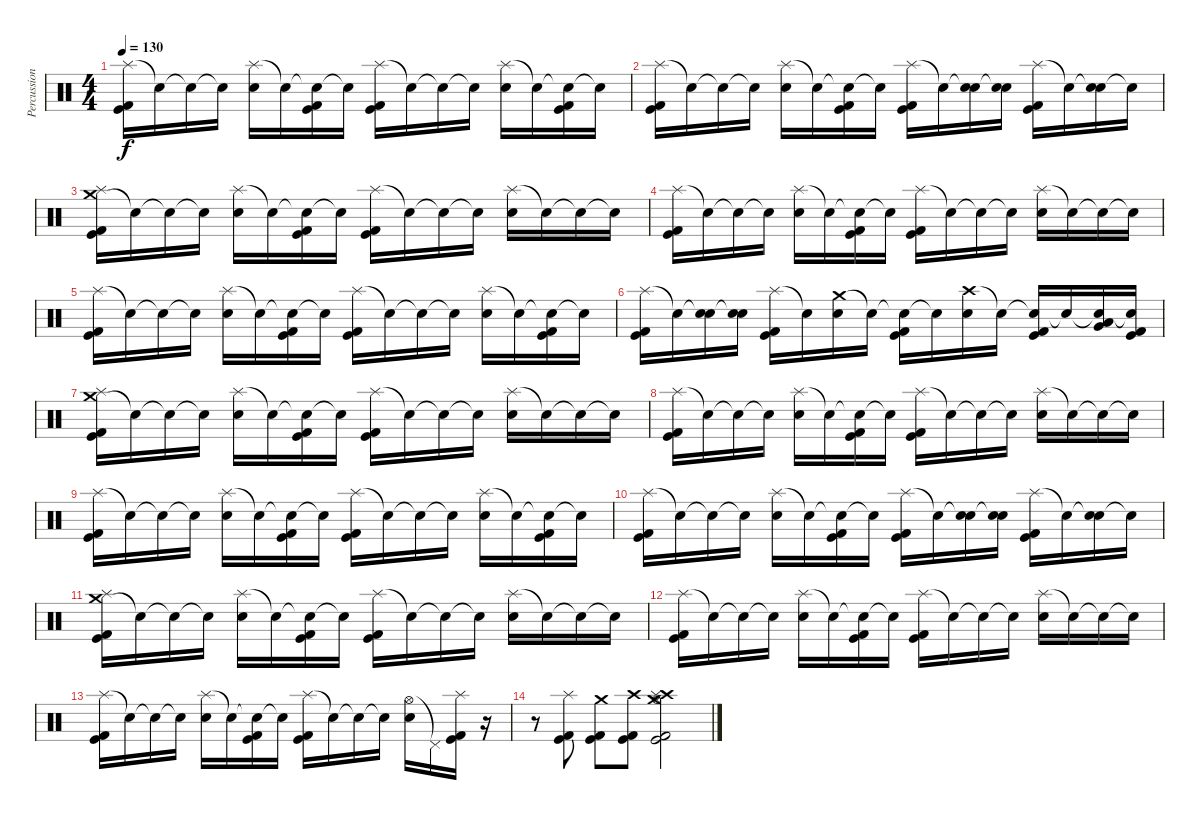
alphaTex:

\track ("Percussion" "Percussion") {instrument percussion}
\staff {score}
\articulation defaults
\ts (4 4)
\tempo 130
\clef neutral
\ks c
("Splash (hit)" "Kick (hit)" "Kick (hit) 2").16{dy f} "Snare (hit)"{t}.16 "Snare (hit)"{t}.16 "Snare (hit)"{t}.16 ("Splash (hit)" "Electric Snare (hit)").16 "Snare (hit)"{t}.16 ("Snare (hit)"{t} "Kick (hit)" "Kick (hit) 2").16 "Snare (hit)"{t}.16 ("Splash (hit)" "Kick (hit)" "Kick (hit) 2").16 "Snare (hit)"{t}.16 "Snare (hit)"{t}.16 "Snare (hit)"{t}.16 ("Splash (hit)" "Electric Snare (hit)").16 "Snare (hit)"{t}.16 ("Snare (hit)"{t} "Kick (hit)" "Kick (hit) 2").16 "Snare (hit)"{t}.16 |
("Splash (hit)" "Kick (hit)" "Kick (hit) 2").16 "Snare (hit)"{t}.16 "Snare (hit)"{t}.16 "Snare (hit)"{t}.16 ("Splash (hit)" "Electric Snare (hit)").16 "Snare (hit)"{t}.16 ("Snare (hit)"{t} "Kick (hit)" "Kick (hit) 2").16 "Snare (hit)"{t}.16 ("Splash (hit)" "Kick (hit)" "Kick (hit) 2").16 "Snare (hit)"{t}.16 ("Snare (hit)"{t} "Electric Snare (hit)").16 ("Snare (hit)"{t} "Electric Snare (hit)").16 ("Splash (hit)" "Kick (hit)" "Kick (hit) 2").16 "Snare (hit)"{t}.16 ("Snare (hit)"{t} "Electric Snare (hit)").16 "Snare (hit)"{t}.16 |
("Crash medium (hit)" "Splash (hit)" "Kick (hit)" "Kick (hit) 2").16 "Snare (hit)"{t}.16 "Snare (hit)"{t}.16 "Snare (hit)"{t}.16 ("Splash (hit)" "Electric Snare (hit)").16 "Snare (hit)"{t}.16 ("Snare (hit)"{t} "Kick (hit)" "Kick (hit) 2").16 "Snare (hit)"{t}.16 ("Splash (hit)" "Kick (hit)" "Kick (hit) 2").16 "Snare (hit)"{t}.16 "Snare (hit)"{t}.16 "Snare (hit)"{t}.16 ("Splash (hit)" "Electric Snare (hit)").16 "Snare (hit)"{t}.16 "Snare (hit)"{t}.16 "Snare (hit)"{t}.16 |
("Splash (hit)" "Kick (hit)" "Kick (hit) 2").16 "Snare (hit)"{t}.16 "Snare (hit)"{t}.16 "Snare (hit)"{t}.16 ("Splash (hit)" "Electric Snare (hit)").16 "Snare (hit)"{t}.16 ("Snare (hit)"{t} "Kick (hit)" "Kick (hit) 2").16 "Snare (hit)"{t}.16 ("Splash (hit)" "Kick (hit)" "Kick (hit) 2").16 "Snare (hit)"{t}.16 "Snare (hit)"{t}.16 "Snare (hit)"{t}.16 ("Splash (hit)" "Electric Snare (hit)").16 "Snare (hit)"{t}.16 "Snare (hit)"{t}.16 "Snare (hit)"{t}.16 |
("Splash (hit)" "Kick (hit)" "Kick (hit) 2").16 "Snare (hit)"{t}.16 "Snare (hit)"{t}.16 "Snare (hit)"{t}.16 ("Splash (hit)" "Electric Snare (hit)").16 "Snare (hit)"{t}.16 ("Snare (hit)"{t} "Kick (hit)" "Kick (hit) 2").16 "Snare (hit)"{t}.16 ("Splash (hit)" "Kick (hit)" "Kick (hit) 2").16 "Snare (hit)"{t}.16 "Snare (hit)"{t}.16 "Snare (hit)"{t}.16 ("Splash (hit)" "Electric Snare (hit)").16 "Snare (hit)"{t}.16 ("Snare (hit)"{t} "Kick (hit)" "Kick (hit) 2").16 "Snare (hit)"{t}.16 |
("Splash (hit)" "Kick (hit)" "Kick (hit) 2").16 "Snare (hit)"{t}.16 ("Snare (hit)"{t} "Electric Snare (hit)").16 ("Snare (hit)"{t} "Electric Snare (hit)").16 ("Splash (hit)" "Kick (hit)" "Kick (hit) 2").16 "Snare (hit)"{t}.16 ("Crash medium (hit)" "Electric Snare (hit)").16 "Snare (hit)"{t}.16 ("Snare (hit)"{t} "Kick (hit)" "Kick (hit) 2").16 "Snare (hit)"{t}.16 ("Crash high (hit)" "Electric Snare (hit)").16 "Snare (hit)"{t}.16 ("Snare (hit)"{t} "Kick (hit)" "Kick (hit) 2").16 "Snare (hit)"{t}.16 ("Snare (hit)"{t} "Low Tom (hit)" "Very Low Tom (hit)").16 ("Snare (hit)"{t} "Kick (hit)" "Kick (hit) 2").16 |
("Crash medium (hit)" "Splash (hit)" "Kick (hit)" "Kick (hit) 2").16 "Snare (hit)"{t}.16 "Snare (hit)"{t}.16 "Snare (hit)"{t}.16 ("Splash (hit)" "Electric Snare (hit)").16 "Snare (hit)"{t}.16 ("Snare (hit)"{t} "Kick (hit)" "Kick (hit) 2").16 "Snare (hit)"{t}.16 ("Splash (hit)" "Kick (hit)" "Kick (hit) 2").16 "Snare (hit)"{t}.16 "Snare (hit)"{t}.16 "Snare (hit)"{t}.16 ("Splash (hit)" "Electric Snare (hit)").16 "Snare (hit)"{t}.16 "Snare (hit)"{t}.16 "Snare (hit)"{t}.16 |
("Splash (hit)" "Kick (hit)" "Kick (hit) 2").16 "Snare (hit)"{t}.16 "Snare (hit)"{t}.16 "Snare (hit)"{t}.16 ("Splash (hit)" "Electric Snare (hit)").16 "Snare (hit)"{t}.16 ("Snare (hit)"{t} "Kick (hit)" "Kick (hit) 2").16 "Snare (hit)"{t}.16 ("Splash (hit)" "Kick (hit)" "Kick (hit) 2").16 "Snare (hit)"{t}.16 "Snare (hit)"{t}.16 "Snare (hit)"{t}.16 ("Splash (hit)" "Electric Snare (hit)").16 "Snare (hit)"{t}.16 "Snare (hit)"{t}.16 "Snare (hit)"{t}.16 |
("Splash (hit)" "Kick (hit)" "Kick (hit) 2").16 "Snare (hit)"{t}.16 "Snare (hit)"{t}.16 "Snare (hit)"{t}.16 ("Splash (hit)" "Electric Snare (hit)").16 "Snare (hit)"{t}.16 ("Snare (hit)"{t} "Kick (hit)" "Kick (hit) 2").16 "Snare (hit)"{t}.16 ("Splash (hit)" "Kick (hit)" "Kick (hit) 2").16 "Snare (hit)"{t}.16 "Snare (hit)"{t}.16 "Snare (hit)"{t}.16 ("Splash (hit)" "Electric Snare (hit)").16 "Snare (hit)"{t}.16 ("Snare (hit)"{t} "Kick (hit)" "Kick (hit) 2").16 "Snare (hit)"{t}.16 |
("Splash (hit)" "Kick (hit)" "Kick (hit) 2").16 "Snare (hit)"{t}.16 "Snare (hit)"{t}.16 "Snare (hit)"{t}.16 ("Splash (hit)" "Electric Snare (hit)").16 "Snare (hit)"{t}.16 ("Snare (hit)"{t} "Kick (hit)" "Kick (hit) 2").16 "Snare (hit)"{t}.16 ("Splash (hit)" "Kick (hit)" "Kick (hit) 2").16 "Snare (hit)"{t}.16 ("Snare (hit)"{t} "Electric Snare (hit)").16 ("Snare (hit)"{t} "Electric Snare (hit)").16 ("Splash (hit)" "Kick (hit)" "Kick (hit) 2").16 "Snare (hit)"{t}.16 ("Snare (hit)"{t} "Electric Snare (hit)").16 "Snare (hit)"{t}.16 |
("Crash medium (hit)" "Splash (hit)" "Kick (hit)" "Kick (hit) 2").16 "Snare (hit)"{t}.16 "Snare (hit)"{t}.16 "Snare (hit)"{t}.16 ("Splash (hit)" "Electric Snare (hit)").16 "Snare (hit)"{t}.16 ("Snare (hit)"{t} "Kick (hit)" "Kick (hit) 2").16 "Snare (hit)"{t}.16 ("Splash (hit)" "Kick (hit)" "Kick (hit) 2").16 "Snare (hit)"{t}.16 "Snare (hit)"{t}.16 "Snare (hit)"{t}.16 ("Splash (hit)" "Electric Snare (hit)").16 "Snare (hit)"{t}.16 "Snare (hit)"{t}.16 "Snare (hit)"{t}.16 |
("Splash (hit)" "Kick (hit)" "Kick (hit) 2").16 "Snare (hit)"{t}.16 "Snare (hit)"{t}.16 "Snare (hit)"{t}.16 ("Splash (hit)" "Electric Snare (hit)").16 "Snare (hit)"{t}.16 ("Snare (hit)"{t} "Kick (hit)" "Kick (hit) 2").16 "Snare (hit)"{t}.16 ("Splash (hit)" "Kick (hit)" "Kick (hit) 2").16 "Snare (hit)"{t}.16 "Snare (hit)"{t}.16 "Snare (hit)"{t}.16 ("Splash (hit)" "Electric Snare (hit)").16 "Snare (hit)"{t}.16 "Snare (hit)"{t}.16 "Snare (hit)"{t}.16 |
("Splash (hit)" "Kick (hit)" "Kick (hit) 2").16 "Snare (hit)"{t}.16 "Snare (hit)"{t}.16 "Snare (hit)"{t}.16 ("Splash (hit)" "Electric Snare (hit)").16 "Snare (hit)"{t}.16 ("Snare (hit)"{t} "Kick (hit)" "Kick (hit) 2").16 "Snare (hit)"{t}.16 ("Splash (hit)" "Kick (hit)" "Kick (hit) 2").16 "Snare (hit)"{t}.16 "Snare (hit)"{t}.16 "Snare (hit)"{t}.16 ("Hi-Hat (open)" "Electric Snare (hit)").16 "Pedal Hi-Hat (hit)"{t}.16 ("Splash (hit)" "Kick (hit)" "Kick (hit) 2").16 r.16 |
r.8 ("Splash (hit)" "Kick (hit)" "Kick (hit) 2").8 ("Crash medium (hit)" "Kick (hit)" "Kick (hit) 2").8 ("Crash high (hit)" "Kick (hit)" "Kick (hit) 2").8 ("Crash medium (hit)" "Crash high (hit)" "Splash (hit)" "Hi-Hat (open)" "Kick (hit)" "Kick (hit) 2").2
